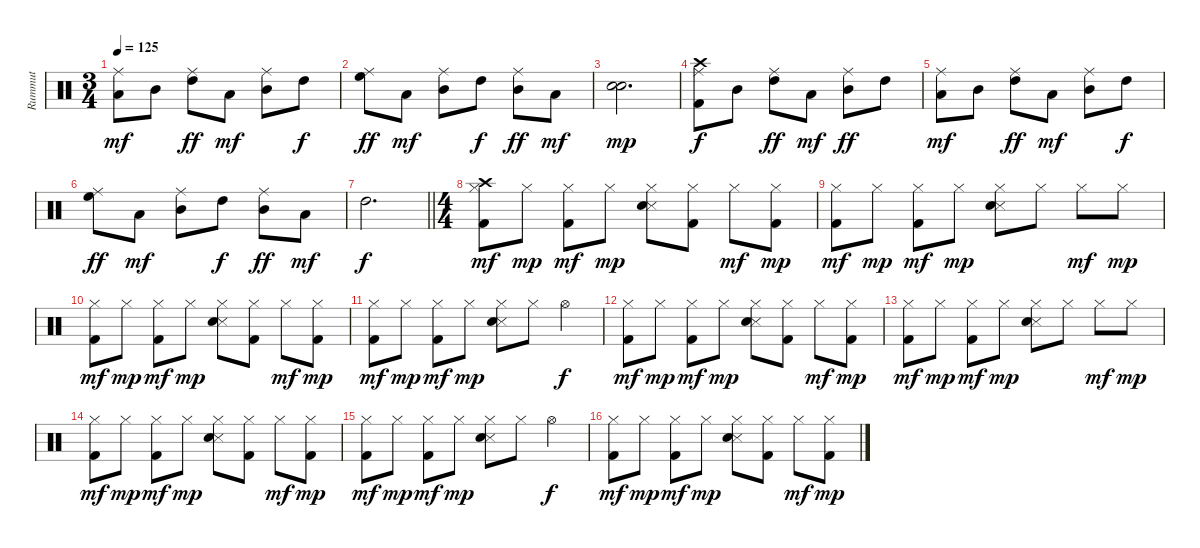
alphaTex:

\track ("Rummut" "Rummut") {instrument percussion}
\staff {score}
\articulation defaults
\ts (3 4)
\tempo 125
\clef neutral
\ks c
("Ride (middle)" "Low Floor Tom (hit)").8{dy mf} "Mid Tom (hit)".8 ("Ride (middle)" "High Tom (hit)").8{dy ff} "Low Tom (hit)".8{dy mf} ("Ride (middle)" "Mid Tom (hit)").8 "High Tom (hit)".8{dy f} |
("Ride (middle)" "High Floor Tom (hit)").8{dy ff} "Low Floor Tom (hit)".8{dy mf} ("Ride (middle)" "Mid Tom (hit)").8 "High Tom (hit)".8{dy f} ("Ride (middle)" "Mid Tom (hit)").8{dy ff} "Low Tom (hit)".8{dy mf} |
("Electric Snare (hit)" "Snare (hit) 2").2{d dy mp} |
("Crash high (hit)" "Ride (middle)" "Kick (hit) 2").8{dy f} "Mid Tom (hit)".8 ("Ride (middle)" "High Tom (hit)").8{dy ff} "Low Floor Tom (hit)".8{dy mf} ("Ride (middle)" "Mid Tom (hit)").8{dy ff} "High Tom (hit)".8 |
("Ride (middle)" "Low Floor Tom (hit)").8{dy mf} "Mid Tom (hit)".8 ("Ride (middle)" "High Tom (hit)").8{dy ff} "Low Tom (hit)".8{dy mf} ("Ride (middle)" "Mid Tom (hit)").8 "High Tom (hit)".8{dy f} |
("Ride (middle)" "High Floor Tom (hit)").8{dy ff} "Low Floor Tom (hit)".8{dy mf} ("Ride (middle)" "Mid Tom (hit)").8 "High Tom (hit)".8{dy f} ("Ride (middle)" "Mid Tom (hit)").8{dy ff} "Low Tom (hit)".8{dy mf} |
\barLineRight lightlight "High Tom (hit)".2{d dy f}
|
\ts (4 4)
\section ("" "")
("Crash high (hit)" "Hi-Hat (closed)" "Kick (hit) 2").8{dy mf volume 12} "Hi-Hat (closed)".8{dy mp} ("Hi-Hat (closed)" "Kick (hit) 2").8{dy mf} "Hi-Hat (closed)".8{dy mp} ("Hi-Hat (closed)" "Snare (side stick) 3" "Electric Snare (hit)").8 ("Hi-Hat (closed)" "Kick (hit) 2").8 "Hi-Hat (closed)".8{dy mf} ("Hi-Hat (closed)" "Kick (hit) 2").8{dy mp} |
("Hi-Hat (closed)" "Kick (hit) 2").8{dy mf} "Hi-Hat (closed)".8{dy mp} ("Hi-Hat (closed)" "Kick (hit) 2").8{dy mf} "Hi-Hat (closed)".8{dy mp} ("Hi-Hat (closed)" "Snare (side stick) 3" "Electric Snare (hit)").8 "Hi-Hat (closed)".8 "Hi-Hat (closed)".8{dy mf} "Hi-Hat (closed)".8{dy mp} |
("Hi-Hat (closed)" "Kick (hit) 2").8{dy mf} "Hi-Hat (closed)".8{dy mp} ("Hi-Hat (closed)" "Kick (hit) 2").8{dy mf} "Hi-Hat (closed)".8{dy mp} ("Hi-Hat (closed)" "Snare (side stick) 3" "Electric Snare (hit)").8 ("Hi-Hat (closed)" "Kick (hit) 2").8 "Hi-Hat (closed)".8{dy mf} ("Hi-Hat (closed)" "Kick (hit) 2").8{dy mp} |
("Hi-Hat (closed)" "Kick (hit) 2").8{dy mf} "Hi-Hat (closed)".8{dy mp} ("Hi-Hat (closed)" "Kick (hit) 2").8{dy mf} "Hi-Hat (closed)".8{dy mp} ("Hi-Hat (closed)" "Snare (side stick) 3" "Electric Snare (hit)").8 "Hi-Hat (closed)".8 "Hi-Hat (open)".4{dy f} |
("Hi-Hat (closed)" "Kick (hit) 2").8{dy mf} "Hi-Hat (closed)".8{dy mp} ("Hi-Hat (closed)" "Kick (hit) 2").8{dy mf} "Hi-Hat (closed)".8{dy mp} ("Hi-Hat (closed)" "Snare (side stick) 3" "Electric Snare (hit)").8 ("Hi-Hat (closed)" "Kick (hit) 2").8 "Hi-Hat (closed)".8{dy mf} ("Hi-Hat (closed)" "Kick (hit) 2").8{dy mp} |
("Hi-Hat (closed)" "Kick (hit) 2").8{dy mf} "Hi-Hat (closed)".8{dy mp} ("Hi-Hat (closed)" "Kick (hit) 2").8{dy mf} "Hi-Hat (closed)".8{dy mp} ("Hi-Hat (closed)" "Snare (side stick) 3" "Electric Snare (hit)").8 "Hi-Hat (closed)".8 "Hi-Hat (closed)".8{dy mf} "Hi-Hat (closed)".8{dy mp} |
("Hi-Hat (closed)" "Kick (hit) 2").8{dy mf} "Hi-Hat (closed)".8{dy mp} ("Hi-Hat (closed)" "Kick (hit) 2").8{dy mf} "Hi-Hat (closed)".8{dy mp} ("Hi-Hat (closed)" "Snare (side stick) 3" "Electric Snare (hit)").8 ("Hi-Hat (closed)" "Kick (hit) 2").8 "Hi-Hat (closed)".8{dy mf} ("Hi-Hat (closed)" "Kick (hit) 2").8{dy mp} |
("Hi-Hat (closed)" "Kick (hit) 2").8{dy mf} "Hi-Hat (closed)".8{dy mp} ("Hi-Hat (closed)" "Kick (hit) 2").8{dy mf} "Hi-Hat (closed)".8{dy mp} ("Hi-Hat (closed)" "Snare (side stick) 3" "Electric Snare (hit)").8 "Hi-Hat (closed)".8 "Hi-Hat (open)".4{dy f} |
("Hi-Hat (closed)" "Kick (hit) 2").8{dy mf} "Hi-Hat (closed)".8{dy mp} ("Hi-Hat (closed)" "Kick (hit) 2").8{dy mf} "Hi-Hat (closed)".8{dy mp} ("Hi-Hat (closed)" "Snare (side stick) 3" "Electric Snare (hit)").8 ("Hi-Hat (closed)" "Kick (hit) 2").8 "Hi-Hat (closed)".8{dy mf} ("Hi-Hat (closed)" "Kick (hit) 2").8{dy mp}
